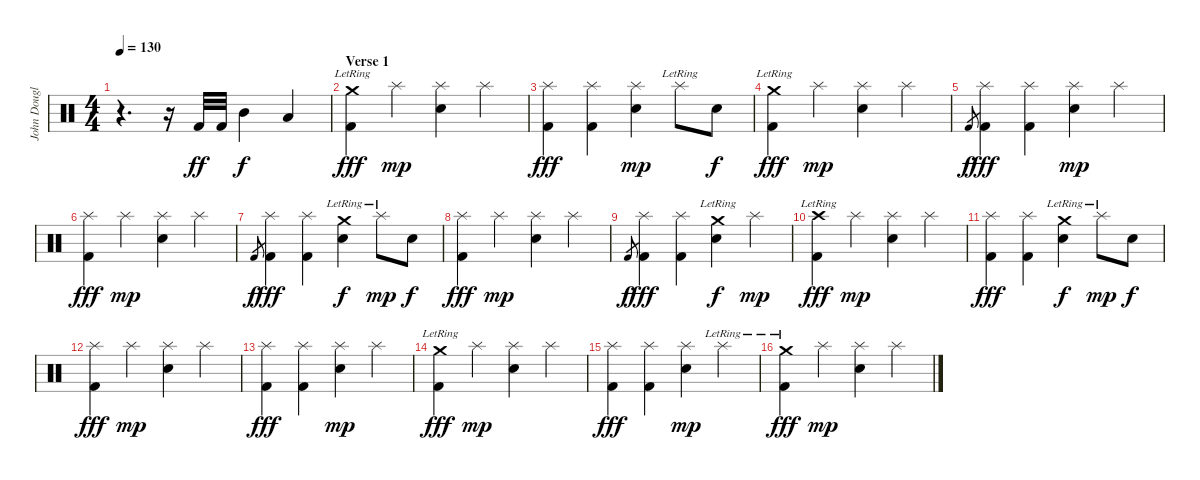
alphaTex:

\track ("John Douglas (Drums)" "John Dougl") {instrument percussion}
\staff {score}
\articulation defaults
\ts (4 4)
\tempo 130
\clef neutral
\ks c
r.4{d dy f} r.16 "Kick (hit) 2".32{dy ff} "Kick (hit) 2".32 "Mid Tom (hit)".4{dy f} "Low Tom (hit)".4 |
\section ("" "Verse 1")
("Crash medium (hit)"{lr} "Kick (hit) 2").4{dy fff} "Splash (hit)".4{dy mp} ("Splash (hit)" "Snare (hit) 2").4 "Splash (hit)".4 |
("Splash (hit)" "Kick (hit) 2").4{dy fff} ("Splash (hit)" "Kick (hit) 2").4 ("Splash (hit)" "Snare (hit) 2").4{dy mp} "Splash (hit)"{lr}.8 "Snare (hit) 2".8{dy f} |
("Crash medium (hit)"{lr} "Kick (hit) 2").4{dy fff} "Splash (hit)".4{dy mp} ("Splash (hit)" "Snare (hit) 2").4 "Splash (hit)".4 |
"Kick (hit) 2".8{gr dy f} ("Splash (hit)" "Kick (hit) 2").4{dy fff} ("Splash (hit)" "Kick (hit) 2").4 ("Splash (hit)" "Snare (hit) 2").4{dy mp} "Splash (hit)".4 |
("Splash (hit)" "Kick (hit) 2").4{dy fff} "Splash (hit)".4{dy mp} ("Splash (hit)" "Snare (hit) 2").4 "Splash (hit)".4 |
"Kick (hit) 2".8{gr dy f} ("Splash (hit)" "Kick (hit) 2").4{dy fff} ("Splash (hit)" "Kick (hit) 2").4 ("Crash medium (hit)"{lr} "Snare (hit) 2").4{dy f} "Splash (hit)"{lr}.8{dy mp} "Snare (hit) 2".8{dy f} |
("Splash (hit)" "Kick (hit) 2").4{dy fff} "Splash (hit)".4{dy mp} ("Splash (hit)" "Snare (hit) 2").4 "Splash (hit)".4 |
"Kick (hit) 2".8{gr dy f} ("Splash (hit)" "Kick (hit) 2").4{dy fff} ("Splash (hit)" "Kick (hit) 2").4 ("Crash medium (hit)"{lr} "Snare (hit) 2").4{dy f} "Splash (hit)".4{dy mp} |
("Crash high (hit)"{lr} "Kick (hit) 2").4{dy fff} "Splash (hit)".4{dy mp} ("Splash (hit)" "Snare (hit) 2").4 "Splash (hit)".4 |
("Splash (hit)" "Kick (hit) 2").4{dy fff} ("Splash (hit)" "Kick (hit) 2").4 ("Crash medium (hit)"{lr} "Snare (hit) 2").4{dy f} "Splash (hit)"{lr}.8{dy mp} "Snare (hit) 2".8{dy f} |
("Splash (hit)" "Kick (hit) 2").4{dy fff} "Splash (hit)".4{dy mp} ("Splash (hit)" "Snare (hit) 2").4 "Splash (hit)".4 |
("Splash (hit)" "Kick (hit) 2").4{dy fff} ("Splash (hit)" "Kick (hit) 2").4 ("Splash (hit)" "Snare (hit) 2").4{dy mp} "Splash (hit)".4 |
("Crash medium (hit)"{lr} "Kick (hit) 2").4{dy fff} "Splash (hit)".4{dy mp} ("Splash (hit)" "Snare (hit) 2").4 "Splash (hit)".4 |
("Splash (hit)" "Kick (hit) 2").4{dy fff} ("Splash (hit)" "Kick (hit) 2").4 ("Splash (hit)" "Snare (hit) 2").4{dy mp} "Splash (hit)"{lr}.4 |
("Crash medium (hit)"{lr} "Kick (hit) 2").4{dy fff} "Splash (hit)".4{dy mp} ("Splash (hit)" "Snare (hit) 2").4 "Splash (hit)".4
